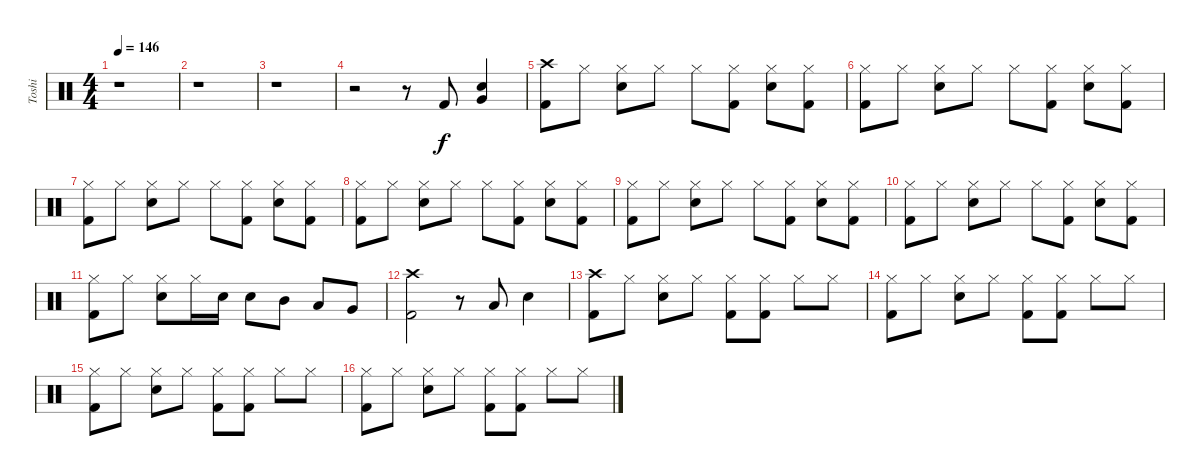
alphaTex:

\track ("Toshi" "Toshi") {instrument percussion}
\staff {score}
\articulation defaults
\ts (4 4)
\tempo 146
\clef neutral
\ks c
r.1{dy f} |
r.1 |
r.1 |
r.2 r.8 "Kick (hit) 2".8 ("Very Low Tom (hit)" "Electric Snare (hit)").4 |
("Crash high (hit)" "Kick (hit) 2").8 "Hi-Hat (closed)".8 ("Hi-Hat (closed)" "Electric Snare (hit)").8 "Hi-Hat (closed)".8 "Hi-Hat (closed)".8 ("Hi-Hat (closed)" "Kick (hit) 2").8 ("Hi-Hat (closed)" "Electric Snare (hit)").8 ("Hi-Hat (closed)" "Kick (hit) 2").8 |
("Hi-Hat (closed)" "Kick (hit) 2").8 "Hi-Hat (closed)".8 ("Hi-Hat (closed)" "Electric Snare (hit)").8 "Hi-Hat (closed)".8 "Hi-Hat (closed)".8 ("Hi-Hat (closed)" "Kick (hit) 2").8 ("Hi-Hat (closed)" "Electric Snare (hit)").8 ("Hi-Hat (closed)" "Kick (hit) 2").8 |
("Hi-Hat (closed)" "Kick (hit) 2").8 "Hi-Hat (closed)".8 ("Hi-Hat (closed)" "Electric Snare (hit)").8 "Hi-Hat (closed)".8 "Hi-Hat (closed)".8 ("Hi-Hat (closed)" "Kick (hit) 2").8 ("Hi-Hat (closed)" "Electric Snare (hit)").8 ("Hi-Hat (closed)" "Kick (hit) 2").8 |
("Hi-Hat (closed)" "Kick (hit) 2").8 "Hi-Hat (closed)".8 ("Hi-Hat (closed)" "Electric Snare (hit)").8 "Hi-Hat (closed)".8 "Hi-Hat (closed)".8 ("Hi-Hat (closed)" "Kick (hit) 2").8 ("Hi-Hat (closed)" "Electric Snare (hit)").8 ("Hi-Hat (closed)" "Kick (hit) 2").8 |
("Hi-Hat (closed)" "Kick (hit) 2").8 "Hi-Hat (closed)".8 ("Hi-Hat (closed)" "Electric Snare (hit)").8 "Hi-Hat (closed)".8 "Hi-Hat (closed)".8 ("Hi-Hat (closed)" "Kick (hit) 2").8 ("Hi-Hat (closed)" "Electric Snare (hit)").8 ("Hi-Hat (closed)" "Kick (hit) 2").8 |
("Hi-Hat (closed)" "Kick (hit) 2").8 "Hi-Hat (closed)".8 ("Hi-Hat (closed)" "Electric Snare (hit)").8 "Hi-Hat (closed)".8 "Hi-Hat (closed)".8 ("Hi-Hat (closed)" "Kick (hit) 2").8 ("Hi-Hat (closed)" "Electric Snare (hit)").8 ("Hi-Hat (closed)" "Kick (hit) 2").8 |
("Hi-Hat (closed)" "Kick (hit) 2").8 "Hi-Hat (closed)".8 ("Hi-Hat (closed)" "Electric Snare (hit)").8 "Hi-Hat (closed)".16 "Electric Snare (hit)".16 "Electric Snare (hit)".8 "Mid Tom (hit)".8 "Low Tom (hit)".8 "Very Low Tom (hit)".8 |
("Crash high (hit)" "Kick (hit) 2").2 r.8 "Low Tom (hit)".8 "Electric Snare (hit)".4 |
("Crash high (hit)" "Kick (hit) 2").8 "Hi-Hat (closed)".8 ("Hi-Hat (closed)" "Electric Snare (hit)").8 "Hi-Hat (closed)".8 ("Hi-Hat (closed)" "Kick (hit) 2").8 ("Hi-Hat (closed)" "Kick (hit) 2").8 "Hi-Hat (closed)".8 "Hi-Hat (closed)".8 |
("Hi-Hat (closed)" "Kick (hit) 2").8 "Hi-Hat (closed)".8 ("Hi-Hat (closed)" "Electric Snare (hit)").8 "Hi-Hat (closed)".8 ("Hi-Hat (closed)" "Kick (hit) 2").8 ("Hi-Hat (closed)" "Kick (hit) 2").8 "Hi-Hat (closed)".8 "Hi-Hat (closed)".8 |
("Hi-Hat (closed)" "Kick (hit) 2").8 "Hi-Hat (closed)".8 ("Hi-Hat (closed)" "Electric Snare (hit)").8 "Hi-Hat (closed)".8 ("Hi-Hat (closed)" "Kick (hit) 2").8 ("Hi-Hat (closed)" "Kick (hit) 2").8 "Hi-Hat (closed)".8 "Hi-Hat (closed)".8 |
("Hi-Hat (closed)" "Kick (hit) 2").8 "Hi-Hat (closed)".8 ("Hi-Hat (closed)" "Electric Snare (hit)").8 "Hi-Hat (closed)".8 ("Hi-Hat (closed)" "Kick (hit) 2").8 ("Hi-Hat (closed)" "Kick (hit) 2").8 "Hi-Hat (closed)".8 "Hi-Hat (closed)".8
